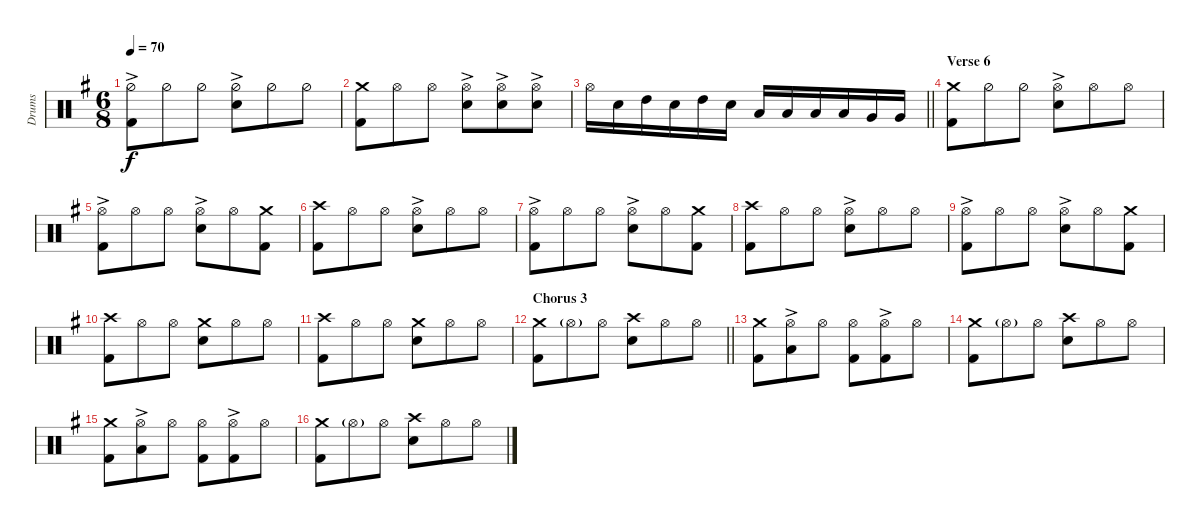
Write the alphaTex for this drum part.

\track ("Drums" "Drums") {instrument percussion}
\staff {score}
\articulation defaults
\ts (6 8)
\tempo 70
\clef neutral
\ks g
("Hi-Hat (half)" "Kick (hit) 2"{ac}).8{dy f} "Hi-Hat (half)".8 "Hi-Hat (half)".8 ("Snare (hit) 2"{ac} "Hi-Hat (half)").8 "Hi-Hat (half)".8 "Hi-Hat (half)".8 |
("Crash medium (hit)" "Kick (hit) 2").8 "Hi-Hat (open)".8 "Hi-Hat (open)".8 ("Hi-Hat (open)"{ac} "Snare (hit) 2").8 ("Hi-Hat (open)"{ac} "Snare (hit) 2").8 ("Hi-Hat (open)"{ac} "Snare (hit) 2").8 |
\barLineRight lightlight "Hi-Hat (open)".16 "Snare (hit) 2".16 "High Tom (hit)".16 "Snare (hit) 2".16 "High Tom (hit)".16 "Snare (hit) 2".16 "Low Tom (hit)".16 "Low Tom (hit)".16 "Low Tom (hit)".16 "Low Tom (hit)".16 "Very Low Tom (hit)".16 "Very Low Tom (hit)".16
|
\section ("" "Verse 6")
("Crash medium (hit)" "Kick (hit) 2").8 "Hi-Hat (half)".8 "Hi-Hat (half)".8 ("Hi-Hat (open)"{ac} "Snare (hit) 2").8 "Hi-Hat (open)".8 "Hi-Hat (open)".8 |
("Hi-Hat (open)"{ac} "Kick (hit) 2").8 "Hi-Hat (open)".8 "Hi-Hat (open)".8 ("Hi-Hat (open)"{ac} "Snare (hit) 2").8 "Hi-Hat (open)".8 ("Crash medium (hit)" "Kick (hit) 2").8 |
("Crash high (hit)" "Kick (hit) 2").8 "Hi-Hat (open)".8 "Hi-Hat (open)".8 ("Hi-Hat (open)"{ac} "Snare (hit) 2").8 "Hi-Hat (open)".8 "Hi-Hat (open)".8 |
("Hi-Hat (open)" "Kick (hit) 2"{ac}).8 "Hi-Hat (open)".8 "Hi-Hat (open)".8 ("Hi-Hat (open)"{ac} "Snare (hit) 2").8 "Hi-Hat (open)".8 ("Crash medium (hit)" "Kick (hit) 2").8 |
("Crash high (hit)" "Kick (hit) 2").8 "Hi-Hat (open)".8 "Hi-Hat (open)".8 ("Hi-Hat (open)"{ac} "Snare (hit) 2").8 "Hi-Hat (open)".8 "Hi-Hat (open)".8 |
("Hi-Hat (open)"{ac} "Kick (hit) 2").8 "Hi-Hat (open)".8 "Hi-Hat (open)".8 ("Hi-Hat (open)"{ac} "Snare (hit) 2").8 "Hi-Hat (open)".8 ("Crash medium (hit)" "Kick (hit) 2").8 |
("Crash high (hit)" "Kick (hit) 2").8 "Hi-Hat (open)".8 "Hi-Hat (open)".8 ("Snare (hit) 2" "Crash medium (hit)").8 "Hi-Hat (open)".8 "Hi-Hat (open)".8 |
("Crash high (hit)" "Kick (hit) 2").8 "Hi-Hat (open)".8 "Hi-Hat (open)".8 ("Snare (hit) 2" "Crash medium (hit)").8 "Hi-Hat (open)".8 "Hi-Hat (open)".8 |
\section ("" "Chorus 3")
\barLineRight lightlight
("Crash medium (hit)" "Kick (hit) 2").8 "Hi-Hat (open)"{g}.8 "Hi-Hat (open)".8 ("Crash high (hit)" "Snare (hit) 2").8 "Hi-Hat (open)".8 "Hi-Hat (open)".8 |
("Crash medium (hit)" "Kick (hit) 2").8 ("Hi-Hat (open)"{ac} "Low Tom (hit)").8 "Hi-Hat (open)".8 ("Hi-Hat (open)" "Kick (hit) 2").8 ("Hi-Hat (open)"{ac} "Kick (hit) 2").8 "Hi-Hat (open)".8 |
("Crash medium (hit)" "Kick (hit) 2").8 "Hi-Hat (open)"{g}.8 "Hi-Hat (open)".8 ("Crash high (hit)" "Snare (hit) 2").8 "Hi-Hat (open)".8 "Hi-Hat (open)".8 |
("Crash medium (hit)" "Kick (hit) 2").8 ("Hi-Hat (open)"{ac} "Low Tom (hit)").8 "Hi-Hat (open)".8 ("Hi-Hat (open)" "Kick (hit) 2").8 ("Hi-Hat (open)"{ac} "Kick (hit) 2").8 "Hi-Hat (open)".8 |
("Crash medium (hit)" "Kick (hit) 2").8 "Hi-Hat (open)"{g}.8 "Hi-Hat (open)".8 ("Crash high (hit)" "Snare (hit) 2").8 "Hi-Hat (open)".8 "Hi-Hat (open)".8
